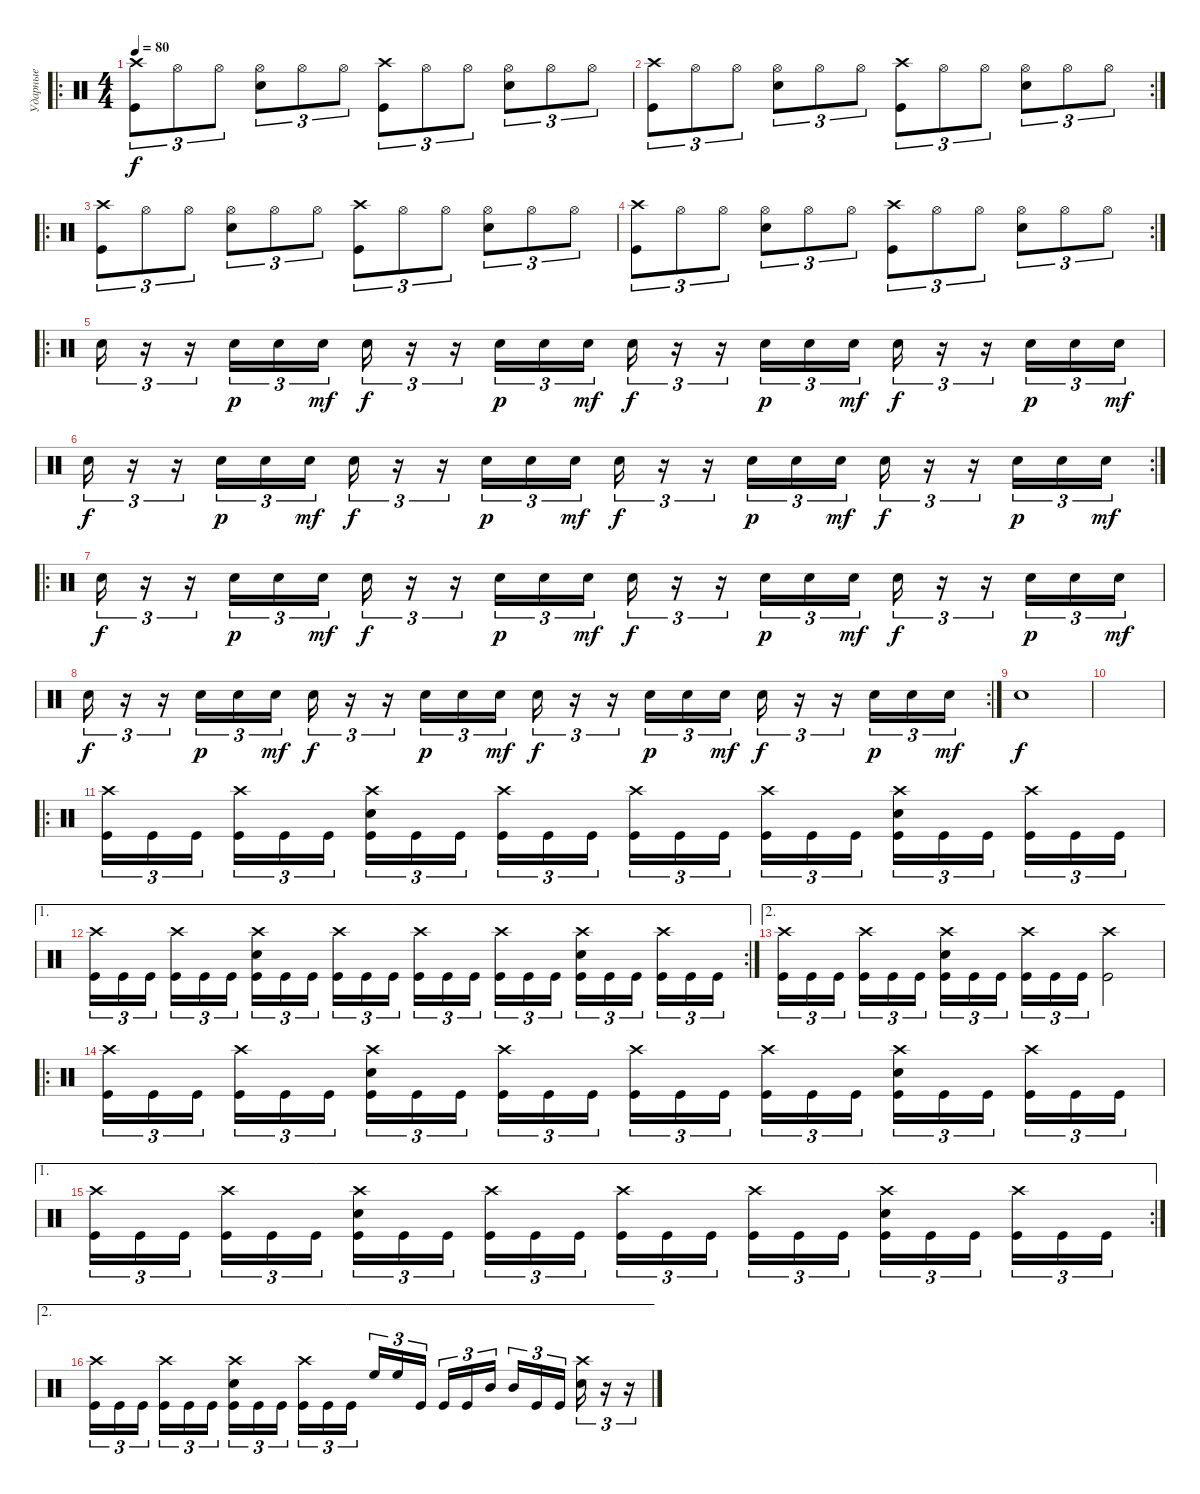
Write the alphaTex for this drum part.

\track ("Ударные" "Ударные") {instrument percussion}
\staff {score}
\articulation defaults
\ro
\ts (4 4)
\tempo 80
\clef neutral
\ks c
("Crash high (hit)" "Kick (hit)").8{tu (3 2) dy f} "Hi-Hat (open)".8{tu (3 2)} "Hi-Hat (open)".8{tu (3 2)} ("Hi-Hat (open)" "Snare (hit) 2").8{tu (3 2)} "Hi-Hat (open)".8{tu (3 2)} "Hi-Hat (open)".8{tu (3 2)} ("Crash high (hit)" "Kick (hit)").8{tu (3 2)} "Hi-Hat (open)".8{tu (3 2)} "Hi-Hat (open)".8{tu (3 2)} ("Snare (hit) 2" "Hi-Hat (open)").8{tu (3 2)} "Hi-Hat (open)".8{tu (3 2)} "Hi-Hat (open)".8{tu (3 2)} |
\rc 2
("Crash high (hit)" "Kick (hit)").8{tu (3 2)} "Hi-Hat (open)".8{tu (3 2)} "Hi-Hat (open)".8{tu (3 2)} ("Hi-Hat (open)" "Snare (hit) 2").8{tu (3 2)} "Hi-Hat (open)".8{tu (3 2)} "Hi-Hat (open)".8{tu (3 2)} ("Crash high (hit)" "Kick (hit)").8{tu (3 2)} "Hi-Hat (open)".8{tu (3 2)} "Hi-Hat (open)".8{tu (3 2)} ("Snare (hit) 2" "Hi-Hat (open)").8{tu (3 2)} "Hi-Hat (open)".8{tu (3 2)} "Hi-Hat (open)".8{tu (3 2)} |
\ro
("Crash high (hit)" "Kick (hit)").8{tu (3 2)} "Hi-Hat (open)".8{tu (3 2)} "Hi-Hat (open)".8{tu (3 2)} ("Hi-Hat (open)" "Snare (hit) 2").8{tu (3 2)} "Hi-Hat (open)".8{tu (3 2)} "Hi-Hat (open)".8{tu (3 2)} ("Crash high (hit)" "Kick (hit)").8{tu (3 2)} "Hi-Hat (open)".8{tu (3 2)} "Hi-Hat (open)".8{tu (3 2)} ("Snare (hit) 2" "Hi-Hat (open)").8{tu (3 2)} "Hi-Hat (open)".8{tu (3 2)} "Hi-Hat (open)".8{tu (3 2)} |
\rc 2
("Crash high (hit)" "Kick (hit)").8{tu (3 2)} "Hi-Hat (open)".8{tu (3 2)} "Hi-Hat (open)".8{tu (3 2)} ("Hi-Hat (open)" "Snare (hit) 2").8{tu (3 2)} "Hi-Hat (open)".8{tu (3 2)} "Hi-Hat (open)".8{tu (3 2)} ("Crash high (hit)" "Kick (hit)").8{tu (3 2)} "Hi-Hat (open)".8{tu (3 2)} "Hi-Hat (open)".8{tu (3 2)} ("Snare (hit) 2" "Hi-Hat (open)").8{tu (3 2)} "Hi-Hat (open)".8{tu (3 2)} "Hi-Hat (open)".8{tu (3 2)} |
\ro "Snare (hit) 2".16{tu (3 2)}
r.16{tu (3 2)} r.16{tu (3 2)} "Snare (hit) 2".16{tu (3 2) dy p} "Snare (hit) 2".16{tu (3 2)} "Snare (hit) 2".16{tu (3 2) dy mf} "Snare (hit) 2".16{tu (3 2) dy f} r.16{tu (3 2)} r.16{tu (3 2)} "Snare (hit) 2".16{tu (3 2) dy p} "Snare (hit) 2".16{tu (3 2)} "Snare (hit) 2".16{tu (3 2) dy mf} "Snare (hit) 2".16{tu (3 2) dy f} r.16{tu (3 2)} r.16{tu (3 2)} "Snare (hit) 2".16{tu (3 2) dy p} "Snare (hit) 2".16{tu (3 2)} "Snare (hit) 2".16{tu (3 2) dy mf} "Snare (hit) 2".16{tu (3 2) dy f} r.16{tu (3 2)} r.16{tu (3 2)} "Snare (hit) 2".16{tu (3 2) dy p} "Snare (hit) 2".16{tu (3 2)} "Snare (hit) 2".16{tu (3 2) dy mf} |
\rc 2 "Snare (hit) 2".16{tu (3 2) dy f}
r.16{tu (3 2)} r.16{tu (3 2)} "Snare (hit) 2".16{tu (3 2) dy p} "Snare (hit) 2".16{tu (3 2)} "Snare (hit) 2".16{tu (3 2) dy mf} "Snare (hit) 2".16{tu (3 2) dy f} r.16{tu (3 2)} r.16{tu (3 2)} "Snare (hit) 2".16{tu (3 2) dy p} "Snare (hit) 2".16{tu (3 2)} "Snare (hit) 2".16{tu (3 2) dy mf} "Snare (hit) 2".16{tu (3 2) dy f} r.16{tu (3 2)} r.16{tu (3 2)} "Snare (hit) 2".16{tu (3 2) dy p} "Snare (hit) 2".16{tu (3 2)} "Snare (hit) 2".16{tu (3 2) dy mf} "Snare (hit) 2".16{tu (3 2) dy f} r.16{tu (3 2)} r.16{tu (3 2)} "Snare (hit) 2".16{tu (3 2) dy p} "Snare (hit) 2".16{tu (3 2)} "Snare (hit) 2".16{tu (3 2) dy mf} |
\ro "Snare (hit) 2".16{tu (3 2) dy f}
r.16{tu (3 2)} r.16{tu (3 2)} "Snare (hit) 2".16{tu (3 2) dy p} "Snare (hit) 2".16{tu (3 2)} "Snare (hit) 2".16{tu (3 2) dy mf} "Snare (hit) 2".16{tu (3 2) dy f} r.16{tu (3 2)} r.16{tu (3 2)} "Snare (hit) 2".16{tu (3 2) dy p} "Snare (hit) 2".16{tu (3 2)} "Snare (hit) 2".16{tu (3 2) dy mf} "Snare (hit) 2".16{tu (3 2) dy f} r.16{tu (3 2)} r.16{tu (3 2)} "Snare (hit) 2".16{tu (3 2) dy p} "Snare (hit) 2".16{tu (3 2)} "Snare (hit) 2".16{tu (3 2) dy mf} "Snare (hit) 2".16{tu (3 2) dy f} r.16{tu (3 2)} r.16{tu (3 2)} "Snare (hit) 2".16{tu (3 2) dy p} "Snare (hit) 2".16{tu (3 2)} "Snare (hit) 2".16{tu (3 2) dy mf} |
\rc 2 "Snare (hit) 2".16{tu (3 2) dy f}
r.16{tu (3 2)} r.16{tu (3 2)} "Snare (hit) 2".16{tu (3 2) dy p} "Snare (hit) 2".16{tu (3 2)} "Snare (hit) 2".16{tu (3 2) dy mf} "Snare (hit) 2".16{tu (3 2) dy f} r.16{tu (3 2)} r.16{tu (3 2)} "Snare (hit) 2".16{tu (3 2) dy p} "Snare (hit) 2".16{tu (3 2)} "Snare (hit) 2".16{tu (3 2) dy mf} "Snare (hit) 2".16{tu (3 2) dy f} r.16{tu (3 2)} r.16{tu (3 2)} "Snare (hit) 2".16{tu (3 2) dy p} "Snare (hit) 2".16{tu (3 2)} "Snare (hit) 2".16{tu (3 2) dy mf} "Snare (hit) 2".16{tu (3 2) dy f} r.16{tu (3 2)} r.16{tu (3 2)} "Snare (hit) 2".16{tu (3 2) dy p} "Snare (hit) 2".16{tu (3 2)} "Snare (hit) 2".16{tu (3 2) dy mf} |
"Snare (hit) 2".1{dy f} |
|
\ro
("Crash high (hit)" "Kick (hit)").16{tu (3 2)} "Kick (hit)".16{tu (3 2)} "Kick (hit)".16{tu (3 2) beam splitsecondary} ("Crash high (hit)" "Kick (hit)").16{tu (3 2)} "Kick (hit)".16{tu (3 2)} "Kick (hit)".16{tu (3 2)} ("Crash high (hit)" "Snare (hit) 2" "Kick (hit)").16{tu (3 2)} "Kick (hit)".16{tu (3 2)} "Kick (hit)".16{tu (3 2) beam splitsecondary} ("Crash high (hit)" "Kick (hit)").16{tu (3 2)} "Kick (hit)".16{tu (3 2)} "Kick (hit)".16{tu (3 2)} ("Crash high (hit)" "Kick (hit)").16{tu (3 2)} "Kick (hit)".16{tu (3 2)} "Kick (hit)".16{tu (3 2) beam splitsecondary} ("Crash high (hit)" "Kick (hit)").16{tu (3 2)} "Kick (hit)".16{tu (3 2)} "Kick (hit)".16{tu (3 2)} ("Crash high (hit)" "Snare (hit) 2" "Kick (hit)").16{tu (3 2)} "Kick (hit)".16{tu (3 2)} "Kick (hit)".16{tu (3 2) beam splitsecondary} ("Crash high (hit)" "Kick (hit)").16{tu (3 2)} "Kick (hit)".16{tu (3 2)} "Kick (hit)".16{tu (3 2)} |
\ae 1
\rc 2
("Crash high (hit)" "Kick (hit)").16{tu (3 2)} "Kick (hit)".16{tu (3 2)} "Kick (hit)".16{tu (3 2) beam splitsecondary} ("Crash high (hit)" "Kick (hit)").16{tu (3 2)} "Kick (hit)".16{tu (3 2)} "Kick (hit)".16{tu (3 2)} ("Crash high (hit)" "Snare (hit) 2" "Kick (hit)").16{tu (3 2)} "Kick (hit)".16{tu (3 2)} "Kick (hit)".16{tu (3 2) beam splitsecondary} ("Crash high (hit)" "Kick (hit)").16{tu (3 2)} "Kick (hit)".16{tu (3 2)} "Kick (hit)".16{tu (3 2)} ("Crash high (hit)" "Kick (hit)").16{tu (3 2)} "Kick (hit)".16{tu (3 2)} "Kick (hit)".16{tu (3 2) beam splitsecondary} ("Crash high (hit)" "Kick (hit)").16{tu (3 2)} "Kick (hit)".16{tu (3 2)} "Kick (hit)".16{tu (3 2)} ("Crash high (hit)" "Snare (hit) 2" "Kick (hit)").16{tu (3 2)} "Kick (hit)".16{tu (3 2)} "Kick (hit)".16{tu (3 2) beam splitsecondary} ("Crash high (hit)" "Kick (hit)").16{tu (3 2)} "Kick (hit)".16{tu (3 2)} "Kick (hit)".16{tu (3 2)} |
\ae 2
("Crash high (hit)" "Kick (hit)").16{tu (3 2)} "Kick (hit)".16{tu (3 2)} "Kick (hit)".16{tu (3 2) beam splitsecondary} ("Crash high (hit)" "Kick (hit)").16{tu (3 2)} "Kick (hit)".16{tu (3 2)} "Kick (hit)".16{tu (3 2)} ("Crash high (hit)" "Snare (hit) 2" "Kick (hit)").16{tu (3 2)} "Kick (hit)".16{tu (3 2)} "Kick (hit)".16{tu (3 2) beam splitsecondary} ("Crash high (hit)" "Kick (hit)").16{tu (3 2)} "Kick (hit)".16{tu (3 2)} "Kick (hit)".16{tu (3 2)} ("Kick (hit)" "Crash high (hit)").2 |
\ro
("Crash high (hit)" "Kick (hit)").16{tu (3 2)} "Kick (hit)".16{tu (3 2)} "Kick (hit)".16{tu (3 2) beam splitsecondary} ("Crash high (hit)" "Kick (hit)").16{tu (3 2)} "Kick (hit)".16{tu (3 2)} "Kick (hit)".16{tu (3 2)} ("Crash high (hit)" "Snare (hit) 2" "Kick (hit)").16{tu (3 2)} "Kick (hit)".16{tu (3 2)} "Kick (hit)".16{tu (3 2) beam splitsecondary} ("Crash high (hit)" "Kick (hit)").16{tu (3 2)} "Kick (hit)".16{tu (3 2)} "Kick (hit)".16{tu (3 2)} ("Crash high (hit)" "Kick (hit)").16{tu (3 2)} "Kick (hit)".16{tu (3 2)} "Kick (hit)".16{tu (3 2) beam splitsecondary} ("Crash high (hit)" "Kick (hit)").16{tu (3 2)} "Kick (hit)".16{tu (3 2)} "Kick (hit)".16{tu (3 2)} ("Crash high (hit)" "Snare (hit) 2" "Kick (hit)").16{tu (3 2)} "Kick (hit)".16{tu (3 2)} "Kick (hit)".16{tu (3 2) beam splitsecondary} ("Crash high (hit)" "Kick (hit)").16{tu (3 2)} "Kick (hit)".16{tu (3 2)} "Kick (hit)".16{tu (3 2)} |
\ae 1
\rc 2
("Crash high (hit)" "Kick (hit)").16{tu (3 2)} "Kick (hit)".16{tu (3 2)} "Kick (hit)".16{tu (3 2) beam splitsecondary} ("Crash high (hit)" "Kick (hit)").16{tu (3 2)} "Kick (hit)".16{tu (3 2)} "Kick (hit)".16{tu (3 2)} ("Crash high (hit)" "Snare (hit) 2" "Kick (hit)").16{tu (3 2)} "Kick (hit)".16{tu (3 2)} "Kick (hit)".16{tu (3 2) beam splitsecondary} ("Crash high (hit)" "Kick (hit)").16{tu (3 2)} "Kick (hit)".16{tu (3 2)} "Kick (hit)".16{tu (3 2)} ("Crash high (hit)" "Kick (hit)").16{tu (3 2)} "Kick (hit)".16{tu (3 2)} "Kick (hit)".16{tu (3 2) beam splitsecondary} ("Crash high (hit)" "Kick (hit)").16{tu (3 2)} "Kick (hit)".16{tu (3 2)} "Kick (hit)".16{tu (3 2)} ("Crash high (hit)" "Snare (hit) 2" "Kick (hit)").16{tu (3 2)} "Kick (hit)".16{tu (3 2)} "Kick (hit)".16{tu (3 2) beam splitsecondary} ("Crash high (hit)" "Kick (hit)").16{tu (3 2)} "Kick (hit)".16{tu (3 2)} "Kick (hit)".16{tu (3 2)} |
\ae 2
("Crash high (hit)" "Kick (hit)").16{tu (3 2)} "Kick (hit)".16{tu (3 2)} "Kick (hit)".16{tu (3 2) beam splitsecondary} ("Crash high (hit)" "Kick (hit)").16{tu (3 2)} "Kick (hit)".16{tu (3 2)} "Kick (hit)".16{tu (3 2)} ("Crash high (hit)" "Snare (hit) 2" "Kick (hit)").16{tu (3 2)} "Kick (hit)".16{tu (3 2)} "Kick (hit)".16{tu (3 2) beam splitsecondary} ("Crash high (hit)" "Kick (hit)").16{tu (3 2)} "Kick (hit)".16{tu (3 2)} "Kick (hit)".16{tu (3 2)} "High Floor Tom (hit)".16{tu (3 2)} "High Floor Tom (hit)".16{tu (3 2)} "Kick (hit)".16{tu (3 2) beam splitsecondary} "Kick (hit)".16{tu (3 2)} "Kick (hit)".16{tu (3 2)} "Mid Tom (hit)".16{tu (3 2)} "Mid Tom (hit)".16{tu (3 2)} "Kick (hit)".16{tu (3 2)} "Kick (hit)".16{tu (3 2) beam splitsecondary} ("Crash high (hit)" "Snare (hit) 2").16{tu (3 2)} r.16{tu (3 2)} r.16{tu (3 2)}
